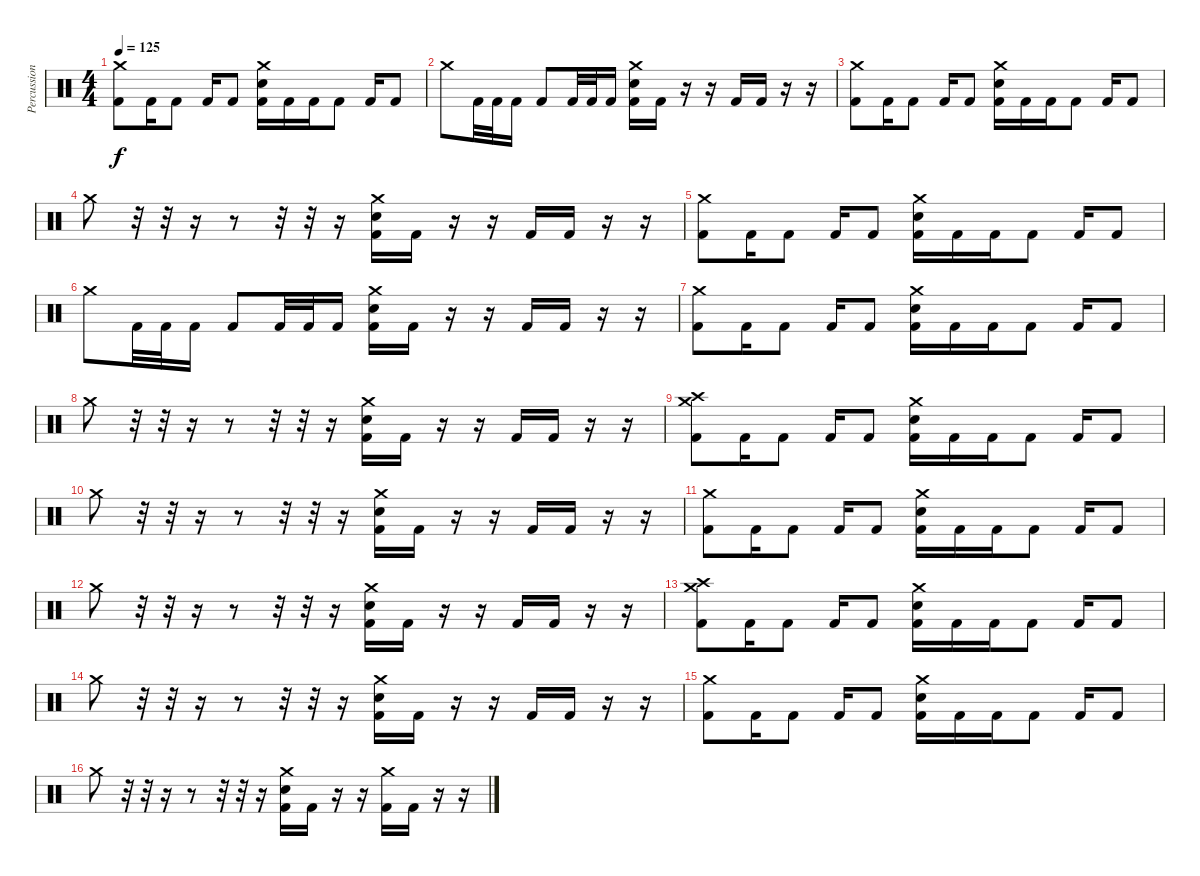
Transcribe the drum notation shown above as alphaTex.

\track ("Percussion" "Percussion") {instrument percussion}
\staff {score}
\articulation defaults
\ts (4 4)
\tempo 125
\clef neutral
\ks c
("Crash medium (hit)" "Kick (hit) 2").8{dy f} "Kick (hit) 2".16 "Kick (hit) 2".8 "Kick (hit) 2".16 "Kick (hit) 2".8 ("Crash medium (hit)" "Electric Snare (hit)" "Kick (hit) 2").16 "Kick (hit) 2".16 "Kick (hit) 2".16 "Kick (hit) 2".8 "Kick (hit) 2".16 "Kick (hit) 2".8 |
"Crash medium (hit)".8 "Kick (hit) 2".32 "Kick (hit) 2".32 "Kick (hit) 2".16 "Kick (hit) 2".8 "Kick (hit) 2".32 "Kick (hit) 2".32 "Kick (hit) 2".16 ("Crash medium (hit)" "Electric Snare (hit)" "Kick (hit) 2").16 "Kick (hit) 2".16 r.16 r.16 "Kick (hit) 2".16 "Kick (hit) 2".16 r.16 r.16 |
("Crash medium (hit)" "Kick (hit) 2").8 "Kick (hit) 2".16 "Kick (hit) 2".8 "Kick (hit) 2".16 "Kick (hit) 2".8 ("Crash medium (hit)" "Electric Snare (hit)" "Kick (hit) 2").16 "Kick (hit) 2".16 "Kick (hit) 2".16 "Kick (hit) 2".8 "Kick (hit) 2".16 "Kick (hit) 2".8 |
"Crash medium (hit)".8 r.32 r.32 r.16 r.8 r.32 r.32 r.16 ("Crash medium (hit)" "Electric Snare (hit)" "Kick (hit) 2").16 "Kick (hit) 2".16 r.16 r.16 "Kick (hit) 2".16 "Kick (hit) 2".16 r.16 r.16 |
("Crash medium (hit)" "Kick (hit) 2").8 "Kick (hit) 2".16 "Kick (hit) 2".8 "Kick (hit) 2".16 "Kick (hit) 2".8 ("Crash medium (hit)" "Electric Snare (hit)" "Kick (hit) 2").16 "Kick (hit) 2".16 "Kick (hit) 2".16 "Kick (hit) 2".8 "Kick (hit) 2".16 "Kick (hit) 2".8 |
"Crash medium (hit)".8 "Kick (hit) 2".32 "Kick (hit) 2".32 "Kick (hit) 2".16 "Kick (hit) 2".8 "Kick (hit) 2".32 "Kick (hit) 2".32 "Kick (hit) 2".16 ("Crash medium (hit)" "Electric Snare (hit)" "Kick (hit) 2").16 "Kick (hit) 2".16 r.16 r.16 "Kick (hit) 2".16 "Kick (hit) 2".16 r.16 r.16 |
("Crash medium (hit)" "Kick (hit) 2").8 "Kick (hit) 2".16 "Kick (hit) 2".8 "Kick (hit) 2".16 "Kick (hit) 2".8 ("Crash medium (hit)" "Electric Snare (hit)" "Kick (hit) 2").16 "Kick (hit) 2".16 "Kick (hit) 2".16 "Kick (hit) 2".8 "Kick (hit) 2".16 "Kick (hit) 2".8 |
"Crash medium (hit)".8 r.32 r.32 r.16 r.8 r.32 r.32 r.16 ("Crash medium (hit)" "Electric Snare (hit)" "Kick (hit) 2").16 "Kick (hit) 2".16 r.16 r.16 "Kick (hit) 2".16 "Kick (hit) 2".16 r.16 r.16 |
("Crash high (hit)" "Crash medium (hit)" "Kick (hit) 2").8 "Kick (hit) 2".16 "Kick (hit) 2".8 "Kick (hit) 2".16 "Kick (hit) 2".8 ("Crash medium (hit)" "Electric Snare (hit)" "Kick (hit) 2").16 "Kick (hit) 2".16 "Kick (hit) 2".16 "Kick (hit) 2".8 "Kick (hit) 2".16 "Kick (hit) 2".8 |
"Crash medium (hit)".8 r.32 r.32 r.16 r.8 r.32 r.32 r.16 ("Crash medium (hit)" "Electric Snare (hit)" "Kick (hit) 2").16 "Kick (hit) 2".16 r.16 r.16 "Kick (hit) 2".16 "Kick (hit) 2".16 r.16 r.16 |
("Crash medium (hit)" "Kick (hit) 2").8 "Kick (hit) 2".16 "Kick (hit) 2".8 "Kick (hit) 2".16 "Kick (hit) 2".8 ("Crash medium (hit)" "Electric Snare (hit)" "Kick (hit) 2").16 "Kick (hit) 2".16 "Kick (hit) 2".16 "Kick (hit) 2".8 "Kick (hit) 2".16 "Kick (hit) 2".8 |
"Crash medium (hit)".8 r.32 r.32 r.16 r.8 r.32 r.32 r.16 ("Crash medium (hit)" "Electric Snare (hit)" "Kick (hit) 2").16 "Kick (hit) 2".16 r.16 r.16 "Kick (hit) 2".16 "Kick (hit) 2".16 r.16 r.16 |
("Crash high (hit)" "Crash medium (hit)" "Kick (hit) 2").8 "Kick (hit) 2".16 "Kick (hit) 2".8 "Kick (hit) 2".16 "Kick (hit) 2".8 ("Crash medium (hit)" "Electric Snare (hit)" "Kick (hit) 2").16 "Kick (hit) 2".16 "Kick (hit) 2".16 "Kick (hit) 2".8 "Kick (hit) 2".16 "Kick (hit) 2".8 |
"Crash medium (hit)".8 r.32 r.32 r.16 r.8 r.32 r.32 r.16 ("Crash medium (hit)" "Electric Snare (hit)" "Kick (hit) 2").16 "Kick (hit) 2".16 r.16 r.16 "Kick (hit) 2".16 "Kick (hit) 2".16 r.16 r.16 |
("Crash medium (hit)" "Kick (hit) 2").8 "Kick (hit) 2".16 "Kick (hit) 2".8 "Kick (hit) 2".16 "Kick (hit) 2".8 ("Crash medium (hit)" "Electric Snare (hit)" "Kick (hit) 2").16 "Kick (hit) 2".16 "Kick (hit) 2".16 "Kick (hit) 2".8 "Kick (hit) 2".16 "Kick (hit) 2".8 |
"Crash medium (hit)".8 r.32 r.32 r.16 r.8 r.32 r.32 r.16 ("Crash medium (hit)" "Electric Snare (hit)" "Kick (hit) 2").16 "Kick (hit) 2".16 r.16 r.16 ("Crash medium (hit)" "Kick (hit) 2").16 "Kick (hit) 2".16 r.16 r.16
